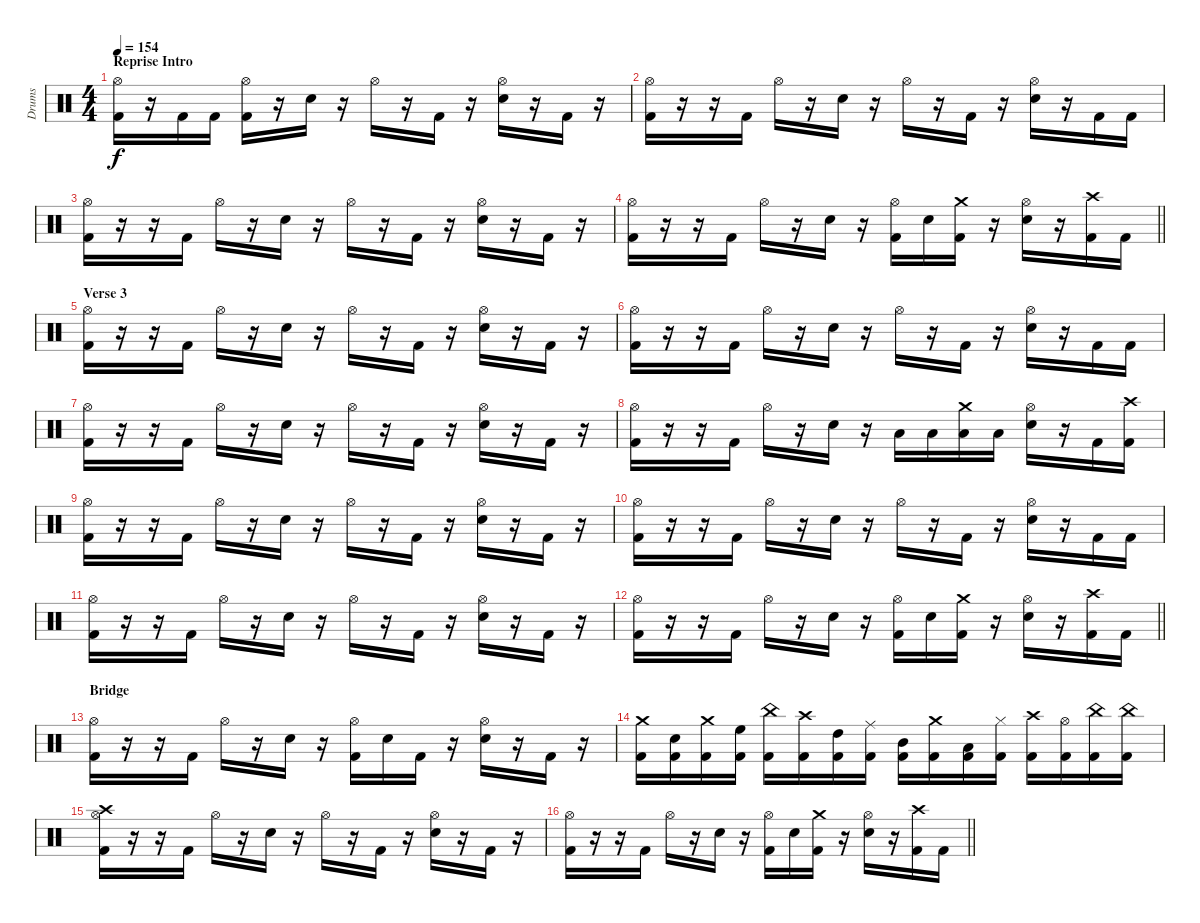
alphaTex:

\track ("Drums" "Drums") {instrument percussion}
\staff {score}
\articulation defaults
\ts (4 4)
\section ("" "Reprise Intro")
\tempo 154
\clef neutral
\ks c
("Hi-Hat (open)" "Kick (hit) 2").16{dy f} r.16 "Kick (hit) 2".16 "Kick (hit) 2".16 ("Hi-Hat (open)" "Kick (hit) 2").16 r.16 "Snare (hit) 2".16 r.16 "Hi-Hat (open)".16 r.16 "Kick (hit) 2".16 r.16 ("Hi-Hat (open)" "Snare (hit) 2").16 r.16 "Kick (hit) 2".16 r.16 |
("Hi-Hat (open)" "Kick (hit) 2").16 r.16 r.16 "Kick (hit) 2".16 "Hi-Hat (open)".16 r.16 "Snare (hit) 2".16 r.16 "Hi-Hat (open)".16 r.16 "Kick (hit) 2".16 r.16 ("Hi-Hat (open)" "Snare (hit) 2").16 r.16 "Kick (hit) 2".16 "Kick (hit) 2".16 |
("Hi-Hat (open)" "Kick (hit) 2").16 r.16 r.16 "Kick (hit) 2".16 "Hi-Hat (open)".16 r.16 "Snare (hit) 2".16 r.16 "Hi-Hat (open)".16 r.16 "Kick (hit) 2".16 r.16 ("Hi-Hat (open)" "Snare (hit) 2").16 r.16 "Kick (hit) 2".16 r.16 |
\barLineRight lightlight
("Hi-Hat (open)" "Kick (hit) 2").16 r.16 r.16 "Kick (hit) 2".16 "Hi-Hat (open)".16 r.16 "Snare (hit) 2".16 r.16 ("Hi-Hat (open)" "Kick (hit) 2").16 "Snare (hit) 2".16 ("Crash medium (hit)" "Kick (hit) 2").16 r.16 ("Hi-Hat (open)" "Snare (hit) 2").16 r.16 ("Crash high (hit)" "Kick (hit) 2").16 "Kick (hit) 2".16 |
\section ("" "Verse 3")
("Hi-Hat (open)" "Kick (hit) 2").16 r.16 r.16 "Kick (hit) 2".16 "Hi-Hat (open)".16 r.16 "Snare (hit) 2".16 r.16 "Hi-Hat (open)".16 r.16 "Kick (hit) 2".16 r.16 ("Hi-Hat (open)" "Snare (hit) 2").16 r.16 "Kick (hit) 2".16 r.16 |
("Hi-Hat (open)" "Kick (hit) 2").16 r.16 r.16 "Kick (hit) 2".16 "Hi-Hat (open)".16 r.16 "Snare (hit) 2".16 r.16 "Hi-Hat (open)".16 r.16 "Kick (hit) 2".16 r.16 ("Hi-Hat (open)" "Snare (hit) 2").16 r.16 "Kick (hit) 2".16 "Kick (hit) 2".16 |
("Hi-Hat (open)" "Kick (hit) 2").16 r.16 r.16 "Kick (hit) 2".16 "Hi-Hat (open)".16 r.16 "Snare (hit) 2".16 r.16 "Hi-Hat (open)".16 r.16 "Kick (hit) 2".16 r.16 ("Hi-Hat (open)" "Snare (hit) 2").16 r.16 "Kick (hit) 2".16 r.16 |
("Hi-Hat (open)" "Kick (hit) 2").16 r.16 r.16 "Kick (hit) 2".16 "Hi-Hat (open)".16 r.16 "Snare (hit) 2".16 r.16 "Low Tom (hit)".16 "Low Tom (hit)".16 ("Crash medium (hit)" "Low Floor Tom (hit)").16 "Low Floor Tom (hit)".16 ("Hi-Hat (open)" "Snare (hit) 2").16 r.16 "Kick (hit) 2".16 ("Crash high (hit)" "Kick (hit) 2").16 |
("Hi-Hat (open)" "Kick (hit) 2").16 r.16 r.16 "Kick (hit) 2".16 "Hi-Hat (open)".16 r.16 "Snare (hit) 2".16 r.16 "Hi-Hat (open)".16 r.16 "Kick (hit) 2".16 r.16 ("Hi-Hat (open)" "Snare (hit) 2").16 r.16 "Kick (hit) 2".16 r.16 |
("Hi-Hat (open)" "Kick (hit) 2").16 r.16 r.16 "Kick (hit) 2".16 "Hi-Hat (open)".16 r.16 "Snare (hit) 2".16 r.16 "Hi-Hat (open)".16 r.16 "Kick (hit) 2".16 r.16 ("Hi-Hat (open)" "Snare (hit) 2").16 r.16 "Kick (hit) 2".16 "Kick (hit) 2".16 |
("Hi-Hat (open)" "Kick (hit) 2").16 r.16 r.16 "Kick (hit) 2".16 "Hi-Hat (open)".16 r.16 "Snare (hit) 2".16 r.16 "Hi-Hat (open)".16 r.16 "Kick (hit) 2".16 r.16 ("Hi-Hat (open)" "Snare (hit) 2").16 r.16 "Kick (hit) 2".16 r.16 |
\barLineRight lightlight
("Hi-Hat (open)" "Kick (hit) 2").16 r.16 r.16 "Kick (hit) 2".16 "Hi-Hat (open)".16 r.16 "Snare (hit) 2".16 r.16 ("Hi-Hat (open)" "Kick (hit) 2").16 "Snare (hit) 2".16 ("Crash medium (hit)" "Kick (hit) 2").16 r.16 ("Hi-Hat (open)" "Snare (hit) 2").16 r.16 ("Crash high (hit)" "Kick (hit) 2").16 "Kick (hit) 2".16 |
\section ("" "Bridge")
("Hi-Hat (open)" "Kick (hit) 2").16 r.16 r.16 "Kick (hit) 2".16 "Hi-Hat (open)".16 r.16 "Snare (hit) 2".16 r.16 ("Hi-Hat (open)" "Kick (hit) 2").16 "Snare (hit) 2".16 "Kick (hit) 2".16 r.16 ("Hi-Hat (open)" "Snare (hit) 2").16 r.16 "Kick (hit) 2".16 r.16 |
("Crash medium (hit)" "Kick (hit) 2").16 ("Snare (hit) 2" "Kick (hit) 2").16 ("Crash medium (hit)" "Kick (hit) 2").16 ("High Floor Tom (hit)" "Kick (hit) 2").16 ("China (hit)" "Kick (hit) 2").16 ("Crash high (hit)" "Kick (hit) 2").16 ("High Tom (hit)" "Kick (hit) 2").16 ("Ride (middle)" "Kick (hit) 2").16 ("Mid Tom (hit)" "Kick (hit) 2").16 ("Crash medium (hit)" "Kick (hit) 2").16 ("Low Tom (hit)" "Kick (hit) 2").16 ("Hi-Hat (closed)" "Kick (hit) 2").16 ("Crash high (hit)" "Kick (hit) 2").16 ("Hi-Hat (open)" "Kick (hit) 2").16 ("China (hit)" "Kick (hit) 2").16 ("China (hit)" "Kick (hit) 2").16 |
("Hi-Hat (open)" "Crash high (hit)" "Kick (hit) 2").16 r.16 r.16 "Kick (hit) 2".16 "Hi-Hat (open)".16 r.16 "Snare (hit) 2".16 r.16 "Hi-Hat (open)".16 r.16 "Kick (hit) 2".16 r.16 ("Hi-Hat (open)" "Snare (hit) 2").16 r.16 "Kick (hit) 2".16 r.16 |
\barLineRight lightlight
("Hi-Hat (open)" "Kick (hit) 2").16 r.16 r.16 "Kick (hit) 2".16 "Hi-Hat (open)".16 r.16 "Snare (hit) 2".16 r.16 ("Hi-Hat (open)" "Kick (hit) 2").16 "Snare (hit) 2".16 ("Crash medium (hit)" "Kick (hit) 2").16 r.16 ("Hi-Hat (open)" "Snare (hit) 2").16 r.16 ("Crash high (hit)" "Kick (hit) 2").16 "Kick (hit) 2".16
